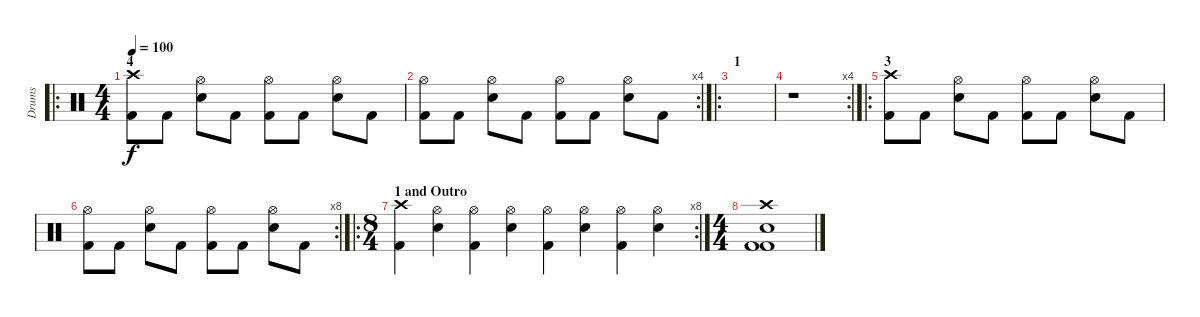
\track ("Drums" "Drums") {instrument percussion}
\staff {score}
\articulation defaults
\ro
\ts (4 4)
\section ("" "4")
\tempo 100
\clef neutral
\ks c
("Crash high (hit)" "Kick (hit) 2").8{dy f} "Kick (hit) 2".8 ("Hi-Hat (open)" "Electric Snare (hit)").8 "Kick (hit) 2".8 ("Hi-Hat (open)" "Kick (hit) 2").8 "Kick (hit) 2".8 ("Hi-Hat (open)" "Electric Snare (hit)").8 "Kick (hit) 2".8 |
\rc 4
("Hi-Hat (open)" "Kick (hit) 2").8 "Kick (hit) 2".8 ("Hi-Hat (open)" "Electric Snare (hit)").8 "Kick (hit) 2".8 ("Hi-Hat (open)" "Kick (hit) 2").8 "Kick (hit) 2".8 ("Hi-Hat (open)" "Electric Snare (hit)").8 "Kick (hit) 2".8 |
\ro
\section ("" "1")
|
\rc 4
r.1 |
\ro
\section ("" "3")
("Crash high (hit)" "Kick (hit) 2").8 "Kick (hit) 2".8 ("Hi-Hat (open)" "Electric Snare (hit)").8 "Kick (hit) 2".8 ("Hi-Hat (open)" "Kick (hit) 2").8 "Kick (hit) 2".8 ("Hi-Hat (open)" "Electric Snare (hit)").8 "Kick (hit) 2".8 |
\rc 8
("Hi-Hat (open)" "Kick (hit) 2").8 "Kick (hit) 2".8 ("Hi-Hat (open)" "Electric Snare (hit)").8 "Kick (hit) 2".8 ("Hi-Hat (open)" "Kick (hit) 2").8 "Kick (hit) 2".8 ("Hi-Hat (open)" "Electric Snare (hit)").8 "Kick (hit) 2".8 |
\ro
\rc 8
\ts (8 4)
\section ("" "1 and Outro")
("Crash high (hit)" "Kick (hit) 2").4 ("Hi-Hat (open)" "Electric Snare (hit)").4 ("Hi-Hat (open)" "Kick (hit) 2").4 ("Hi-Hat (open)" "Electric Snare (hit)").4 ("Hi-Hat (open)" "Kick (hit) 2").4 ("Hi-Hat (open)" "Electric Snare (hit)").4 ("Hi-Hat (open)" "Kick (hit) 2").4 ("Hi-Hat (open)" "Electric Snare (hit)").4 |
\ts (4 4)
("Crash high (hit)" "Electric Snare (hit)" "Kick (hit) 2" "Kick (hit) 2").1
